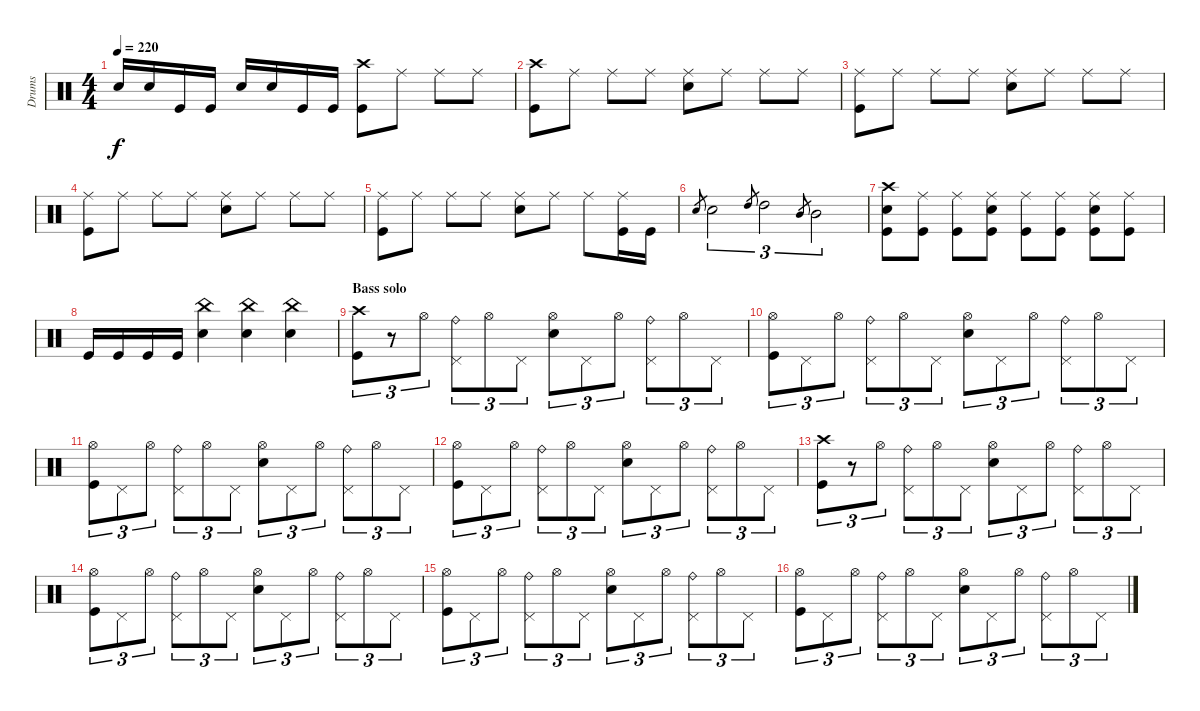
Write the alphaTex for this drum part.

\track ("Drums" "Drums") {instrument percussion}
\staff {score}
\articulation defaults
\ts (4 4)
\tempo 220
\clef neutral
\ks c "Snare (hit) 2".16{dy f} "Snare (hit) 2".16 "Kick (hit)".16 "Kick (hit)".16 "Snare (hit) 2".16 "Snare (hit) 2".16 "Kick (hit)".16 "Kick (hit)".16
("Crash high (hit)" "Kick (hit)").8 "Ride (middle)".8 "Ride (middle)".8 "Ride (middle)".8 |
("Crash high (hit)" "Kick (hit)").8 "Ride (middle)".8 "Ride (middle)".8 "Ride (middle)".8 ("Ride (middle)" "Snare (hit) 2").8 "Ride (middle)".8 "Ride (middle)".8 "Ride (middle)".8 |
("Ride (middle)" "Kick (hit)").8 "Ride (middle)".8 "Ride (middle)".8 "Ride (middle)".8 ("Ride (middle)" "Snare (hit) 2").8 "Ride (middle)".8 "Ride (middle)".8 "Ride (middle)".8 |
("Ride (middle)" "Kick (hit)").8 "Ride (middle)".8 "Ride (middle)".8 "Ride (middle)".8 ("Ride (middle)" "Snare (hit) 2").8 "Ride (middle)".8 "Ride (middle)".8 "Ride (middle)".8 |
("Ride (middle)" "Kick (hit)").8 "Ride (middle)".8 "Ride (middle)".8 "Ride (middle)".8 ("Ride (middle)" "Snare (hit) 2").8 "Ride (middle)".8 "Ride (middle)".8 ("Ride (middle)" "Kick (hit)").16 "Kick (hit)".16 |
"Snare (hit) 2".8{gr} "Snare (hit) 2".2{tu (3 2)} "High Tom (hit)".8{gr} "High Tom (hit)".2{tu (3 2)} "Mid Tom (hit)".8{gr} "Mid Tom (hit)".2{tu (3 2)} |
("Crash high (hit)" "Snare (hit) 2" "Kick (hit)").8 ("Ride (middle)" "Kick (hit)").8 ("Ride (middle)" "Kick (hit)").8 ("Ride (middle)" "Snare (hit) 2" "Kick (hit)").8 ("Ride (middle)" "Kick (hit)").8 ("Ride (middle)" "Kick (hit)").8 ("Ride (middle)" "Snare (hit) 2" "Kick (hit)").8 ("Ride (middle)" "Kick (hit)").8 |
"Kick (hit)".16 "Kick (hit)".16 "Kick (hit)".16 "Kick (hit)".16 ("China (hit)" "Snare (hit) 2").4 ("China (hit)" "Snare (hit) 2").4 ("China (hit)" "Snare (hit) 2").4 |
\section ("" "Bass solo")
("Crash high (hit)" "Kick (hit)").8{tu (3 2)} r.8{tu (3 2)} "Hi-Hat (open)".8{tu (3 2)} ("Pedal Hi-Hat (hit)" "Ride (bell)").8{tu (3 2)} "Hi-Hat (open)".8{tu (3 2)} "Pedal Hi-Hat (hit)".8{tu (3 2)} ("Hi-Hat (open)" "Snare (hit) 2").8{tu (3 2)} "Pedal Hi-Hat (hit)".8{tu (3 2)} "Hi-Hat (open)".8{tu (3 2)} ("Pedal Hi-Hat (hit)" "Ride (bell)").8{tu (3 2)} "Hi-Hat (open)".8{tu (3 2)} "Pedal Hi-Hat (hit)".8{tu (3 2)} |
("Hi-Hat (open)" "Kick (hit)").8{tu (3 2)} "Pedal Hi-Hat (hit)".8{tu (3 2)} "Hi-Hat (open)".8{tu (3 2)} ("Pedal Hi-Hat (hit)" "Ride (bell)").8{tu (3 2)} "Hi-Hat (open)".8{tu (3 2)} "Pedal Hi-Hat (hit)".8{tu (3 2)} ("Hi-Hat (open)" "Snare (hit) 2").8{tu (3 2)} "Pedal Hi-Hat (hit)".8{tu (3 2)} "Hi-Hat (open)".8{tu (3 2)} ("Pedal Hi-Hat (hit)" "Ride (bell)").8{tu (3 2)} "Hi-Hat (open)".8{tu (3 2)} "Pedal Hi-Hat (hit)".8{tu (3 2)} |
("Hi-Hat (open)" "Kick (hit)").8{tu (3 2)} "Pedal Hi-Hat (hit)".8{tu (3 2)} "Hi-Hat (open)".8{tu (3 2)} ("Pedal Hi-Hat (hit)" "Ride (bell)").8{tu (3 2)} "Hi-Hat (open)".8{tu (3 2)} "Pedal Hi-Hat (hit)".8{tu (3 2)} ("Hi-Hat (open)" "Snare (hit) 2").8{tu (3 2)} "Pedal Hi-Hat (hit)".8{tu (3 2)} "Hi-Hat (open)".8{tu (3 2)} ("Pedal Hi-Hat (hit)" "Ride (bell)").8{tu (3 2)} "Hi-Hat (open)".8{tu (3 2)} "Pedal Hi-Hat (hit)".8{tu (3 2)} |
("Hi-Hat (open)" "Kick (hit)").8{tu (3 2)} "Pedal Hi-Hat (hit)".8{tu (3 2)} "Hi-Hat (open)".8{tu (3 2)} ("Pedal Hi-Hat (hit)" "Ride (bell)").8{tu (3 2)} "Hi-Hat (open)".8{tu (3 2)} "Pedal Hi-Hat (hit)".8{tu (3 2)} ("Hi-Hat (open)" "Snare (hit) 2").8{tu (3 2)} "Pedal Hi-Hat (hit)".8{tu (3 2)} "Hi-Hat (open)".8{tu (3 2)} ("Pedal Hi-Hat (hit)" "Ride (bell)").8{tu (3 2)} "Hi-Hat (open)".8{tu (3 2)} "Pedal Hi-Hat (hit)".8{tu (3 2)} |
("Crash high (hit)" "Kick (hit)").8{tu (3 2)} r.8{tu (3 2)} "Hi-Hat (open)".8{tu (3 2)} ("Pedal Hi-Hat (hit)" "Ride (bell)").8{tu (3 2)} "Hi-Hat (open)".8{tu (3 2)} "Pedal Hi-Hat (hit)".8{tu (3 2)} ("Hi-Hat (open)" "Snare (hit) 2").8{tu (3 2)} "Pedal Hi-Hat (hit)".8{tu (3 2)} "Hi-Hat (open)".8{tu (3 2)} ("Pedal Hi-Hat (hit)" "Ride (bell)").8{tu (3 2)} "Hi-Hat (open)".8{tu (3 2)} "Pedal Hi-Hat (hit)".8{tu (3 2)} |
("Hi-Hat (open)" "Kick (hit)").8{tu (3 2)} "Pedal Hi-Hat (hit)".8{tu (3 2)} "Hi-Hat (open)".8{tu (3 2)} ("Pedal Hi-Hat (hit)" "Ride (bell)").8{tu (3 2)} "Hi-Hat (open)".8{tu (3 2)} "Pedal Hi-Hat (hit)".8{tu (3 2)} ("Hi-Hat (open)" "Snare (hit) 2").8{tu (3 2)} "Pedal Hi-Hat (hit)".8{tu (3 2)} "Hi-Hat (open)".8{tu (3 2)} ("Pedal Hi-Hat (hit)" "Ride (bell)").8{tu (3 2)} "Hi-Hat (open)".8{tu (3 2)} "Pedal Hi-Hat (hit)".8{tu (3 2)} |
("Hi-Hat (open)" "Kick (hit)").8{tu (3 2)} "Pedal Hi-Hat (hit)".8{tu (3 2)} "Hi-Hat (open)".8{tu (3 2)} ("Pedal Hi-Hat (hit)" "Ride (bell)").8{tu (3 2)} "Hi-Hat (open)".8{tu (3 2)} "Pedal Hi-Hat (hit)".8{tu (3 2)} ("Hi-Hat (open)" "Snare (hit) 2").8{tu (3 2)} "Pedal Hi-Hat (hit)".8{tu (3 2)} "Hi-Hat (open)".8{tu (3 2)} ("Pedal Hi-Hat (hit)" "Ride (bell)").8{tu (3 2)} "Hi-Hat (open)".8{tu (3 2)} "Pedal Hi-Hat (hit)".8{tu (3 2)} |
("Hi-Hat (open)" "Kick (hit)").8{tu (3 2)} "Pedal Hi-Hat (hit)".8{tu (3 2)} "Hi-Hat (open)".8{tu (3 2)} ("Pedal Hi-Hat (hit)" "Ride (bell)").8{tu (3 2)} "Hi-Hat (open)".8{tu (3 2)} "Pedal Hi-Hat (hit)".8{tu (3 2)} ("Hi-Hat (open)" "Snare (hit) 2").8{tu (3 2)} "Pedal Hi-Hat (hit)".8{tu (3 2)} "Hi-Hat (open)".8{tu (3 2)} ("Pedal Hi-Hat (hit)" "Ride (bell)").8{tu (3 2)} "Hi-Hat (open)".8{tu (3 2)} "Pedal Hi-Hat (hit)".8{tu (3 2)}
